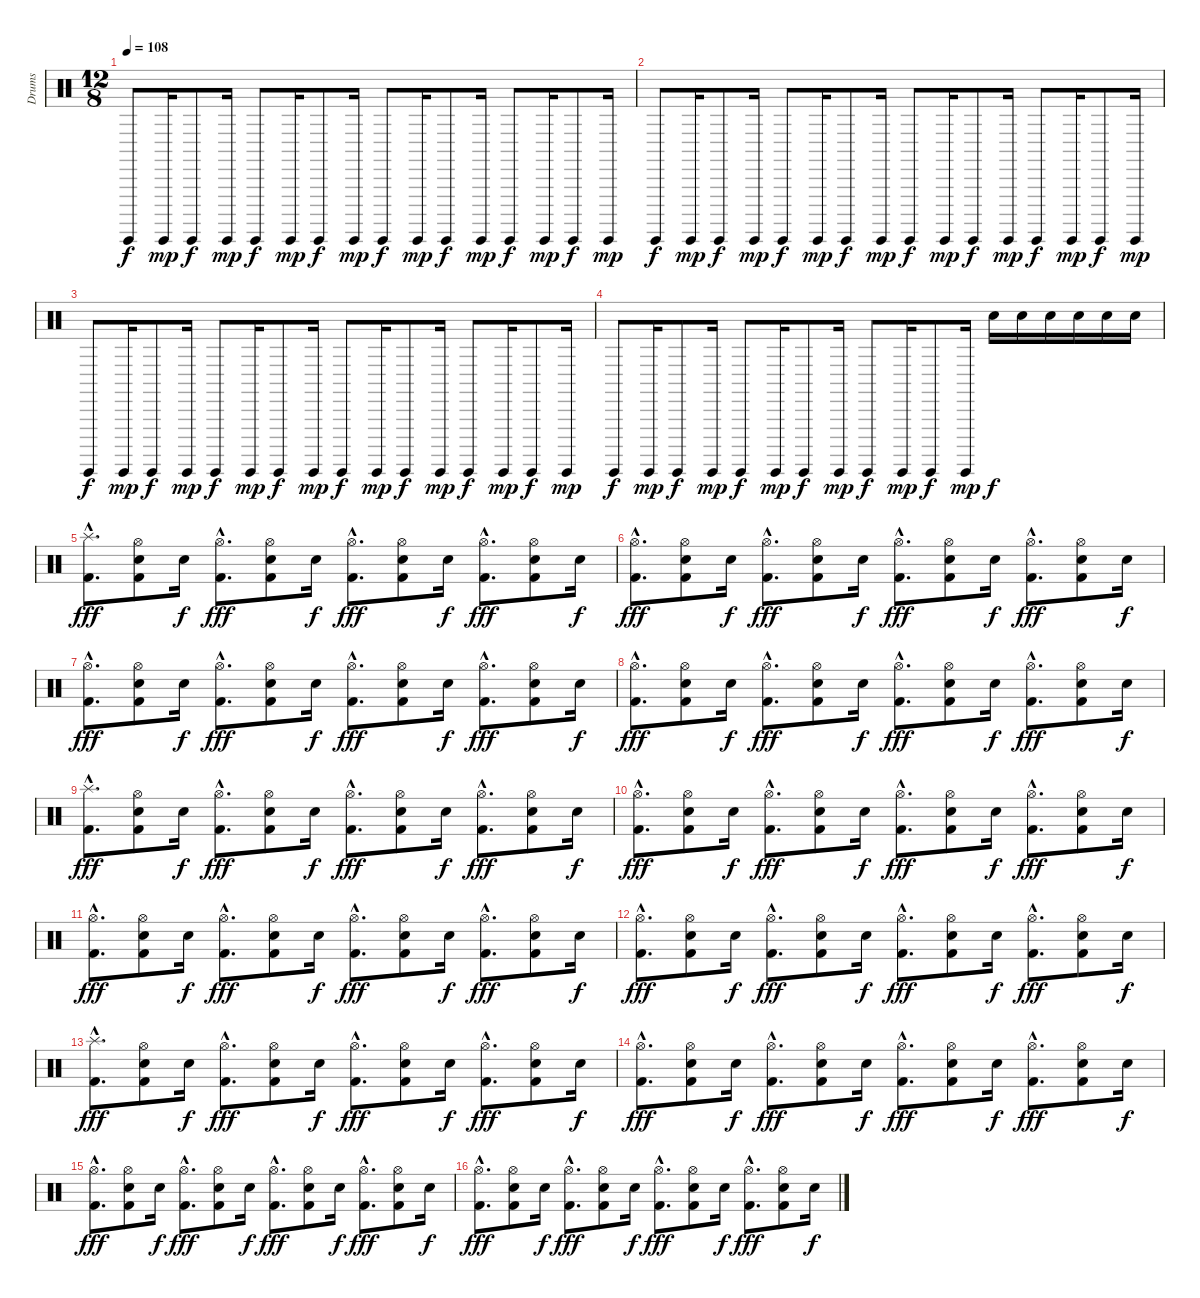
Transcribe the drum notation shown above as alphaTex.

\track ("Drums" "Drums") {instrument percussion}
\staff {score}
\articulation defaults
\ts (12 8)
\tempo 108
\clef neutral
\ks c "Guiro (hit)".8{dy f} "Guiro (hit)".16{dy mp} "Guiro (hit)".8{dy f} "Guiro (hit)".16{dy mp} "Guiro (hit)".8{dy f} "Guiro (hit)".16{dy mp} "Guiro (hit)".8{dy f} "Guiro (hit)".16{dy mp} "Guiro (hit)".8{dy f} "Guiro (hit)".16{dy mp} "Guiro (hit)".8{dy f} "Guiro (hit)".16{dy mp} "Guiro (hit)".8{dy f} "Guiro (hit)".16{dy mp} "Guiro (hit)".8{dy f} "Guiro (hit)".16{dy mp}
|
"Guiro (hit)".8{dy f} "Guiro (hit)".16{dy mp} "Guiro (hit)".8{dy f} "Guiro (hit)".16{dy mp} "Guiro (hit)".8{dy f} "Guiro (hit)".16{dy mp} "Guiro (hit)".8{dy f} "Guiro (hit)".16{dy mp} "Guiro (hit)".8{dy f} "Guiro (hit)".16{dy mp} "Guiro (hit)".8{dy f} "Guiro (hit)".16{dy mp} "Guiro (hit)".8{dy f} "Guiro (hit)".16{dy mp} "Guiro (hit)".8{dy f} "Guiro (hit)".16{dy mp} |
"Guiro (hit)".8{dy f} "Guiro (hit)".16{dy mp} "Guiro (hit)".8{dy f} "Guiro (hit)".16{dy mp} "Guiro (hit)".8{dy f} "Guiro (hit)".16{dy mp} "Guiro (hit)".8{dy f} "Guiro (hit)".16{dy mp} "Guiro (hit)".8{dy f} "Guiro (hit)".16{dy mp} "Guiro (hit)".8{dy f} "Guiro (hit)".16{dy mp} "Guiro (hit)".8{dy f} "Guiro (hit)".16{dy mp} "Guiro (hit)".8{dy f} "Guiro (hit)".16{dy mp} |
"Guiro (hit)".8{dy f} "Guiro (hit)".16{dy mp} "Guiro (hit)".8{dy f} "Guiro (hit)".16{dy mp} "Guiro (hit)".8{dy f} "Guiro (hit)".16{dy mp} "Guiro (hit)".8{dy f} "Guiro (hit)".16{dy mp} "Guiro (hit)".8{dy f} "Guiro (hit)".16{dy mp} "Guiro (hit)".8{dy f} "Guiro (hit)".16{dy mp} "Snare (hit) 2".16{dy f} "Snare (hit) 2".16 "Snare (hit) 2".16 "Snare (hit) 2".16 "Snare (hit) 2".16 "Snare (hit) 2".16 |
("Splash (hit)"{hac} "Kick (hit) 2"{hac}).8{d dy fff} ("Hi-Hat (open)" "Snare (hit) 2" "Kick (hit) 2").8 "Snare (hit) 2".16{dy f} ("Hi-Hat (open)"{hac} "Kick (hit) 2"{hac}).8{d dy fff} ("Hi-Hat (open)" "Snare (hit) 2" "Kick (hit) 2").8 "Snare (hit) 2".16{dy f} ("Hi-Hat (open)"{hac} "Kick (hit) 2"{hac}).8{d dy fff} ("Hi-Hat (open)" "Snare (hit) 2" "Kick (hit) 2").8 "Snare (hit) 2".16{dy f} ("Hi-Hat (open)"{hac} "Kick (hit) 2"{hac}).8{d dy fff} ("Hi-Hat (open)" "Snare (hit) 2" "Kick (hit) 2").8 "Snare (hit) 2".16{dy f} |
("Hi-Hat (open)"{hac} "Kick (hit) 2"{hac}).8{d dy fff} ("Hi-Hat (open)" "Snare (hit) 2" "Kick (hit) 2").8 "Snare (hit) 2".16{dy f} ("Hi-Hat (open)"{hac} "Kick (hit) 2"{hac}).8{d dy fff} ("Hi-Hat (open)" "Snare (hit) 2" "Kick (hit) 2").8 "Snare (hit) 2".16{dy f} ("Hi-Hat (open)"{hac} "Kick (hit) 2"{hac}).8{d dy fff} ("Hi-Hat (open)" "Snare (hit) 2" "Kick (hit) 2").8 "Snare (hit) 2".16{dy f} ("Hi-Hat (open)"{hac} "Kick (hit) 2"{hac}).8{d dy fff} ("Hi-Hat (open)" "Snare (hit) 2" "Kick (hit) 2").8 "Snare (hit) 2".16{dy f} |
("Hi-Hat (open)"{hac} "Kick (hit) 2"{hac}).8{d dy fff} ("Hi-Hat (open)" "Snare (hit) 2" "Kick (hit) 2").8 "Snare (hit) 2".16{dy f} ("Hi-Hat (open)"{hac} "Kick (hit) 2"{hac}).8{d dy fff} ("Hi-Hat (open)" "Snare (hit) 2" "Kick (hit) 2").8 "Snare (hit) 2".16{dy f} ("Hi-Hat (open)"{hac} "Kick (hit) 2"{hac}).8{d dy fff} ("Hi-Hat (open)" "Snare (hit) 2" "Kick (hit) 2").8 "Snare (hit) 2".16{dy f} ("Hi-Hat (open)"{hac} "Kick (hit) 2"{hac}).8{d dy fff} ("Hi-Hat (open)" "Snare (hit) 2" "Kick (hit) 2").8 "Snare (hit) 2".16{dy f} |
("Hi-Hat (open)"{hac} "Kick (hit) 2"{hac}).8{d dy fff} ("Hi-Hat (open)" "Snare (hit) 2" "Kick (hit) 2").8 "Snare (hit) 2".16{dy f} ("Hi-Hat (open)"{hac} "Kick (hit) 2"{hac}).8{d dy fff} ("Hi-Hat (open)" "Snare (hit) 2" "Kick (hit) 2").8 "Snare (hit) 2".16{dy f} ("Hi-Hat (open)"{hac} "Kick (hit) 2"{hac}).8{d dy fff} ("Hi-Hat (open)" "Snare (hit) 2" "Kick (hit) 2").8 "Snare (hit) 2".16{dy f} ("Hi-Hat (open)"{hac} "Kick (hit) 2"{hac}).8{d dy fff} ("Hi-Hat (open)" "Snare (hit) 2" "Kick (hit) 2").8 "Snare (hit) 2".16{dy f} |
("Splash (hit)"{hac} "Kick (hit) 2"{hac}).8{d dy fff} ("Hi-Hat (open)" "Snare (hit) 2" "Kick (hit) 2").8 "Snare (hit) 2".16{dy f} ("Hi-Hat (open)"{hac} "Kick (hit) 2"{hac}).8{d dy fff} ("Hi-Hat (open)" "Snare (hit) 2" "Kick (hit) 2").8 "Snare (hit) 2".16{dy f} ("Hi-Hat (open)"{hac} "Kick (hit) 2"{hac}).8{d dy fff} ("Hi-Hat (open)" "Snare (hit) 2" "Kick (hit) 2").8 "Snare (hit) 2".16{dy f} ("Hi-Hat (open)"{hac} "Kick (hit) 2"{hac}).8{d dy fff} ("Hi-Hat (open)" "Snare (hit) 2" "Kick (hit) 2").8 "Snare (hit) 2".16{dy f} |
("Hi-Hat (open)"{hac} "Kick (hit) 2"{hac}).8{d dy fff} ("Hi-Hat (open)" "Snare (hit) 2" "Kick (hit) 2").8 "Snare (hit) 2".16{dy f} ("Hi-Hat (open)"{hac} "Kick (hit) 2"{hac}).8{d dy fff} ("Hi-Hat (open)" "Snare (hit) 2" "Kick (hit) 2").8 "Snare (hit) 2".16{dy f} ("Hi-Hat (open)"{hac} "Kick (hit) 2"{hac}).8{d dy fff} ("Hi-Hat (open)" "Snare (hit) 2" "Kick (hit) 2").8 "Snare (hit) 2".16{dy f} ("Hi-Hat (open)"{hac} "Kick (hit) 2"{hac}).8{d dy fff} ("Hi-Hat (open)" "Snare (hit) 2" "Kick (hit) 2").8 "Snare (hit) 2".16{dy f} |
("Hi-Hat (open)"{hac} "Kick (hit) 2"{hac}).8{d dy fff} ("Hi-Hat (open)" "Snare (hit) 2" "Kick (hit) 2").8 "Snare (hit) 2".16{dy f} ("Hi-Hat (open)"{hac} "Kick (hit) 2"{hac}).8{d dy fff} ("Hi-Hat (open)" "Snare (hit) 2" "Kick (hit) 2").8 "Snare (hit) 2".16{dy f} ("Hi-Hat (open)"{hac} "Kick (hit) 2"{hac}).8{d dy fff} ("Hi-Hat (open)" "Snare (hit) 2" "Kick (hit) 2").8 "Snare (hit) 2".16{dy f} ("Hi-Hat (open)"{hac} "Kick (hit) 2"{hac}).8{d dy fff} ("Hi-Hat (open)" "Snare (hit) 2" "Kick (hit) 2").8 "Snare (hit) 2".16{dy f} |
("Hi-Hat (open)"{hac} "Kick (hit) 2"{hac}).8{d dy fff} ("Hi-Hat (open)" "Snare (hit) 2" "Kick (hit) 2").8 "Snare (hit) 2".16{dy f} ("Hi-Hat (open)"{hac} "Kick (hit) 2"{hac}).8{d dy fff} ("Hi-Hat (open)" "Snare (hit) 2" "Kick (hit) 2").8 "Snare (hit) 2".16{dy f} ("Hi-Hat (open)"{hac} "Kick (hit) 2"{hac}).8{d dy fff} ("Hi-Hat (open)" "Snare (hit) 2" "Kick (hit) 2").8 "Snare (hit) 2".16{dy f} ("Hi-Hat (open)"{hac} "Kick (hit) 2"{hac}).8{d dy fff} ("Hi-Hat (open)" "Snare (hit) 2" "Kick (hit) 2").8 "Snare (hit) 2".16{dy f} |
("Splash (hit)"{hac} "Kick (hit) 2"{hac}).8{d dy fff} ("Hi-Hat (open)" "Snare (hit) 2" "Kick (hit) 2").8 "Snare (hit) 2".16{dy f} ("Hi-Hat (open)"{hac} "Kick (hit) 2"{hac}).8{d dy fff} ("Hi-Hat (open)" "Snare (hit) 2" "Kick (hit) 2").8 "Snare (hit) 2".16{dy f} ("Hi-Hat (open)"{hac} "Kick (hit) 2"{hac}).8{d dy fff} ("Hi-Hat (open)" "Snare (hit) 2" "Kick (hit) 2").8 "Snare (hit) 2".16{dy f} ("Hi-Hat (open)"{hac} "Kick (hit) 2"{hac}).8{d dy fff} ("Hi-Hat (open)" "Snare (hit) 2" "Kick (hit) 2").8 "Snare (hit) 2".16{dy f} |
("Hi-Hat (open)"{hac} "Kick (hit) 2"{hac}).8{d dy fff} ("Hi-Hat (open)" "Snare (hit) 2" "Kick (hit) 2").8 "Snare (hit) 2".16{dy f} ("Hi-Hat (open)"{hac} "Kick (hit) 2"{hac}).8{d dy fff} ("Hi-Hat (open)" "Snare (hit) 2" "Kick (hit) 2").8 "Snare (hit) 2".16{dy f} ("Hi-Hat (open)"{hac} "Kick (hit) 2"{hac}).8{d dy fff} ("Hi-Hat (open)" "Snare (hit) 2" "Kick (hit) 2").8 "Snare (hit) 2".16{dy f} ("Hi-Hat (open)"{hac} "Kick (hit) 2"{hac}).8{d dy fff} ("Hi-Hat (open)" "Snare (hit) 2" "Kick (hit) 2").8 "Snare (hit) 2".16{dy f} |
("Hi-Hat (open)"{hac} "Kick (hit) 2"{hac}).8{d dy fff} ("Hi-Hat (open)" "Snare (hit) 2" "Kick (hit) 2").8 "Snare (hit) 2".16{dy f} ("Hi-Hat (open)"{hac} "Kick (hit) 2"{hac}).8{d dy fff} ("Hi-Hat (open)" "Snare (hit) 2" "Kick (hit) 2").8 "Snare (hit) 2".16{dy f} ("Hi-Hat (open)"{hac} "Kick (hit) 2"{hac}).8{d dy fff} ("Hi-Hat (open)" "Snare (hit) 2" "Kick (hit) 2").8 "Snare (hit) 2".16{dy f} ("Hi-Hat (open)"{hac} "Kick (hit) 2"{hac}).8{d dy fff} ("Hi-Hat (open)" "Snare (hit) 2" "Kick (hit) 2").8 "Snare (hit) 2".16{dy f} |
("Hi-Hat (open)"{hac} "Kick (hit) 2"{hac}).8{d dy fff} ("Hi-Hat (open)" "Snare (hit) 2" "Kick (hit) 2").8 "Snare (hit) 2".16{dy f} ("Hi-Hat (open)"{hac} "Kick (hit) 2"{hac}).8{d dy fff} ("Hi-Hat (open)" "Snare (hit) 2" "Kick (hit) 2").8 "Snare (hit) 2".16{dy f} ("Hi-Hat (open)"{hac} "Kick (hit) 2"{hac}).8{d dy fff} ("Hi-Hat (open)" "Snare (hit) 2" "Kick (hit) 2").8 "Snare (hit) 2".16{dy f} ("Hi-Hat (open)"{hac} "Kick (hit) 2"{hac}).8{d dy fff} ("Hi-Hat (open)" "Snare (hit) 2" "Kick (hit) 2").8 "Snare (hit) 2".16{dy f}
